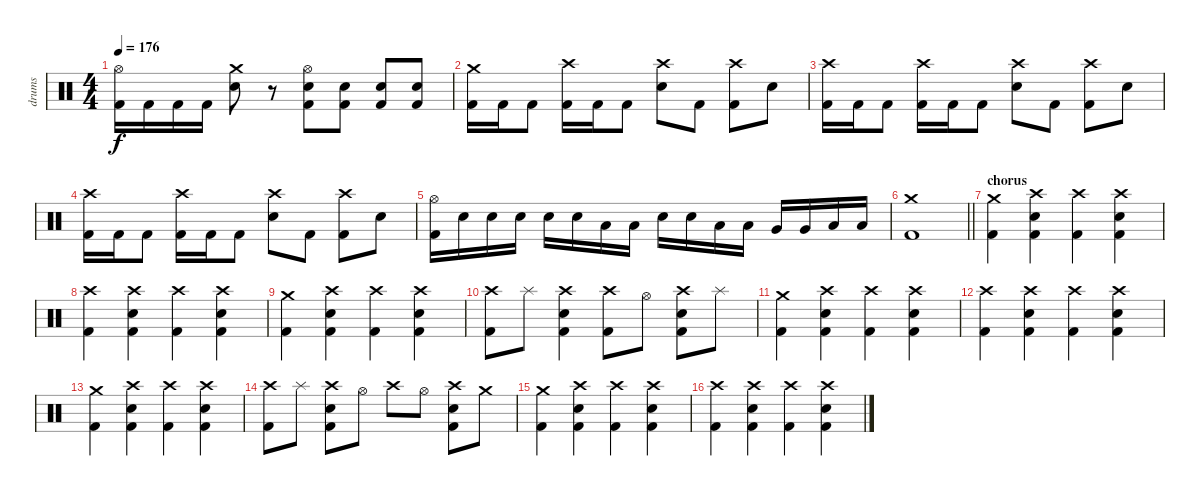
\track ("drums" "drums") {instrument percussion}
\staff {score}
\articulation defaults
\ts (4 4)
\tempo 176
\clef neutral
\ks c
("Hi-Hat (open)" "Kick (hit) 2").16{dy f} "Kick (hit) 2".16 "Kick (hit) 2".16 "Kick (hit) 2".16 ("Crash medium (hit)" "Snare (hit) 2").8 r.8 ("Hi-Hat (open)" "Snare (hit) 2" "Kick (hit) 2").8 ("Snare (hit) 2" "Kick (hit) 2").8 ("Snare (hit) 2" "Kick (hit) 2").8 ("Snare (hit) 2" "Kick (hit) 2").8 |
("Crash medium (hit)" "Kick (hit) 2").16 "Kick (hit) 2".16 "Kick (hit) 2".8 ("Crash high (hit)" "Kick (hit) 2").16 "Kick (hit) 2".16 "Kick (hit) 2".8 ("Crash high (hit)" "Snare (hit) 2").8 "Kick (hit) 2".8 ("Crash high (hit)" "Kick (hit) 2").8 "Snare (hit) 2".8 |
("Crash high (hit)" "Kick (hit) 2").16 "Kick (hit) 2".16 "Kick (hit) 2".8 ("Crash high (hit)" "Kick (hit) 2").16 "Kick (hit) 2".16 "Kick (hit) 2".8 ("Crash high (hit)" "Snare (hit) 2").8 "Kick (hit) 2".8 ("Crash high (hit)" "Kick (hit) 2").8 "Snare (hit) 2".8 |
("Crash high (hit)" "Kick (hit) 2").16 "Kick (hit) 2".16 "Kick (hit) 2".8 ("Crash high (hit)" "Kick (hit) 2").16 "Kick (hit) 2".16 "Kick (hit) 2".8 ("Crash high (hit)" "Snare (hit) 2").8 "Kick (hit) 2".8 ("Crash high (hit)" "Kick (hit) 2").8 "Snare (hit) 2".8 |
("Hi-Hat (open)" "Kick (hit) 2").16 "Snare (hit) 2".16 "Snare (hit) 2".16 "Snare (hit) 2".16 "Snare (hit) 2".16 "Snare (hit) 2".16 "Low Tom (hit)".16 "Low Tom (hit)".16 "Snare (hit) 2".16 "Snare (hit) 2".16 "Low Tom (hit)".16 "Low Tom (hit)".16 "Very Low Tom (hit)".16 "Very Low Tom (hit)".16 "Low Floor Tom (hit)".16 "Low Floor Tom (hit)".16 |
\barLineRight lightlight
("Crash medium (hit)" "Kick (hit) 2").1 |
\section ("" "chorus")
("Crash medium (hit)" "Kick (hit) 2").4 ("Crash high (hit)" "Snare (hit) 2" "Kick (hit) 2").4 ("Crash high (hit)" "Kick (hit) 2").4 ("Crash high (hit)" "Snare (hit) 2" "Kick (hit) 2").4 |
("Crash high (hit)" "Kick (hit) 2").4 ("Crash high (hit)" "Snare (hit) 2" "Kick (hit) 2").4 ("Crash high (hit)" "Kick (hit) 2").4 ("Crash high (hit)" "Snare (hit) 2" "Kick (hit) 2").4 |
("Crash medium (hit)" "Kick (hit) 2").4 ("Crash high (hit)" "Snare (hit) 2" "Kick (hit) 2").4 ("Crash high (hit)" "Kick (hit) 2").4 ("Crash high (hit)" "Snare (hit) 2" "Kick (hit) 2").4 |
("Crash high (hit)" "Kick (hit) 2").8 "Splash (hit)".8 ("Crash high (hit)" "Kick (hit) 2" "Snare (hit) 2").4 ("Crash high (hit)" "Kick (hit) 2").8 "Hi-Hat (open)".8 ("Crash high (hit)" "Snare (hit) 2" "Kick (hit) 2").8 "Splash (hit)".8 |
("Crash medium (hit)" "Kick (hit) 2").4 ("Crash high (hit)" "Snare (hit) 2" "Kick (hit) 2").4 ("Crash high (hit)" "Kick (hit) 2").4 ("Crash high (hit)" "Snare (hit) 2" "Kick (hit) 2").4 |
("Crash high (hit)" "Kick (hit) 2").4 ("Crash high (hit)" "Snare (hit) 2" "Kick (hit) 2").4 ("Crash high (hit)" "Kick (hit) 2").4 ("Crash high (hit)" "Snare (hit) 2" "Kick (hit) 2").4 |
("Crash medium (hit)" "Kick (hit) 2").4 ("Crash high (hit)" "Snare (hit) 2" "Kick (hit) 2").4 ("Crash high (hit)" "Kick (hit) 2").4 ("Crash high (hit)" "Snare (hit) 2" "Kick (hit) 2").4 |
("Crash high (hit)" "Kick (hit) 2").8 "Splash (hit)".8 ("Crash high (hit)" "Snare (hit) 2" "Kick (hit) 2").8 "Hi-Hat (open)".8 "Crash high (hit)".8 "Hi-Hat (open)".8 ("Crash high (hit)" "Snare (hit) 2" "Kick (hit) 2").8 "Crash medium (hit)".8 |
("Crash medium (hit)" "Kick (hit) 2").4 ("Crash high (hit)" "Snare (hit) 2" "Kick (hit) 2").4 ("Crash high (hit)" "Kick (hit) 2").4 ("Crash high (hit)" "Snare (hit) 2" "Kick (hit) 2").4 |
("Crash high (hit)" "Kick (hit) 2").4 ("Crash high (hit)" "Snare (hit) 2" "Kick (hit) 2").4 ("Crash high (hit)" "Kick (hit) 2").4 ("Crash high (hit)" "Snare (hit) 2" "Kick (hit) 2").4
